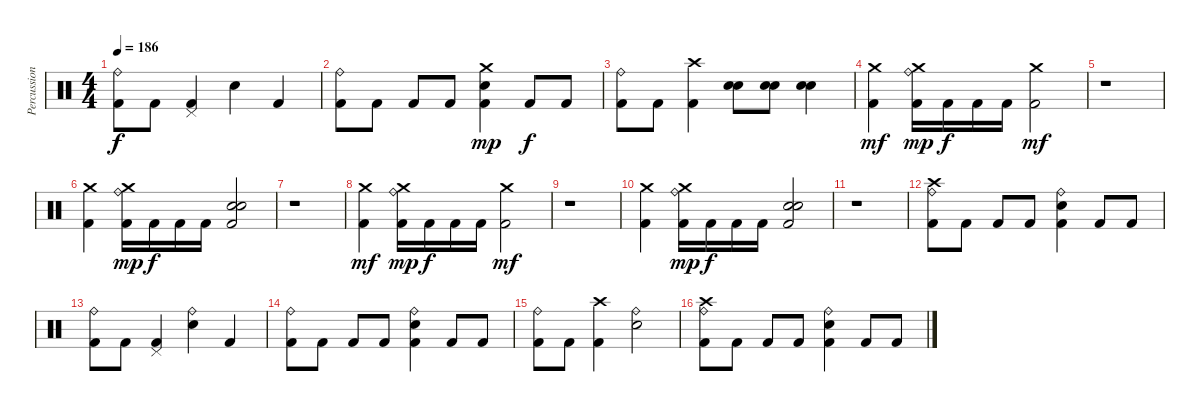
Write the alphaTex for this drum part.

\track ("Percussion" "Percussion") {instrument percussion}
\staff {score}
\articulation defaults
\ts (4 4)
\tempo 186
\clef neutral
\ks c
("Ride (bell)" "Kick (hit) 2").8{dy f} "Kick (hit) 2".8 ("Pedal Hi-Hat (hit)" "Kick (hit) 2").4 "Electric Snare (hit)".4 "Kick (hit) 2".4 |
("Ride (bell)" "Kick (hit) 2").8 "Kick (hit) 2".8 "Kick (hit) 2".8 "Kick (hit) 2".8 ("Crash medium (hit)" "Electric Snare (hit)" "Kick (hit) 2").4{dy mp} "Kick (hit) 2".8{dy f} "Kick (hit) 2".8 |
("Ride (bell)" "Kick (hit) 2").8 "Kick (hit) 2".8 ("Crash high (hit)" "Kick (hit) 2").4 ("Electric Snare (hit)" "Electric Snare (hit)").8 ("Electric Snare (hit)" "Electric Snare (hit)").8 ("Electric Snare (hit)" "Electric Snare (hit)").4 |
("Crash medium (hit)" "Kick (hit) 2").4{dy mf} ("Crash medium (hit)" "Ride (bell)" "Kick (hit) 2").16{dy mp} "Kick (hit) 2".16{dy f} "Kick (hit) 2".16 "Kick (hit) 2".16 ("Crash medium (hit)" "Kick (hit) 2").2{dy mf} |
r.1 |
("Crash medium (hit)" "Kick (hit) 2").4 ("Crash medium (hit)" "Ride (bell)" "Kick (hit) 2").16{dy mp} "Kick (hit) 2".16{dy f} "Kick (hit) 2".16 "Kick (hit) 2".16 ("Electric Snare (hit)" "Electric Snare (hit)" "Kick (hit) 2").2 |
r.1 |
("Crash medium (hit)" "Kick (hit) 2").4{dy mf} ("Crash medium (hit)" "Ride (bell)" "Kick (hit) 2").16{dy mp} "Kick (hit) 2".16{dy f} "Kick (hit) 2".16 "Kick (hit) 2".16 ("Crash medium (hit)" "Kick (hit) 2").2{dy mf} |
r.1 |
("Crash medium (hit)" "Kick (hit) 2").4 ("Crash medium (hit)" "Ride (bell)" "Kick (hit) 2").16{dy mp} "Kick (hit) 2".16{dy f} "Kick (hit) 2".16 "Kick (hit) 2".16 ("Electric Snare (hit)" "Electric Snare (hit)" "Kick (hit) 2").2 |
r.1 |
("Crash high (hit)" "Ride (bell)" "Kick (hit) 2").8 "Kick (hit) 2".8 "Kick (hit) 2".8 "Kick (hit) 2".8 ("Ride (bell)" "Electric Snare (hit)" "Kick (hit) 2").4 "Kick (hit) 2".8 "Kick (hit) 2".8 |
("Ride (bell)" "Kick (hit) 2").8 "Kick (hit) 2".8 ("Pedal Hi-Hat (hit)" "Kick (hit) 2").4 ("Ride (bell)" "Electric Snare (hit)").4 "Kick (hit) 2".4 |
("Ride (bell)" "Kick (hit) 2").8 "Kick (hit) 2".8 "Kick (hit) 2".8 "Kick (hit) 2".8 ("Ride (bell)" "Electric Snare (hit)" "Kick (hit) 2").4 "Kick (hit) 2".8 "Kick (hit) 2".8 |
("Ride (bell)" "Kick (hit) 2").8 "Kick (hit) 2".8 ("Crash high (hit)" "Kick (hit) 2").4 ("Ride (bell)" "Electric Snare (hit)").2 |
("Crash high (hit)" "Ride (bell)" "Kick (hit) 2").8 "Kick (hit) 2".8 "Kick (hit) 2".8 "Kick (hit) 2".8 ("Ride (bell)" "Electric Snare (hit)" "Kick (hit) 2").4 "Kick (hit) 2".8 "Kick (hit) 2".8
